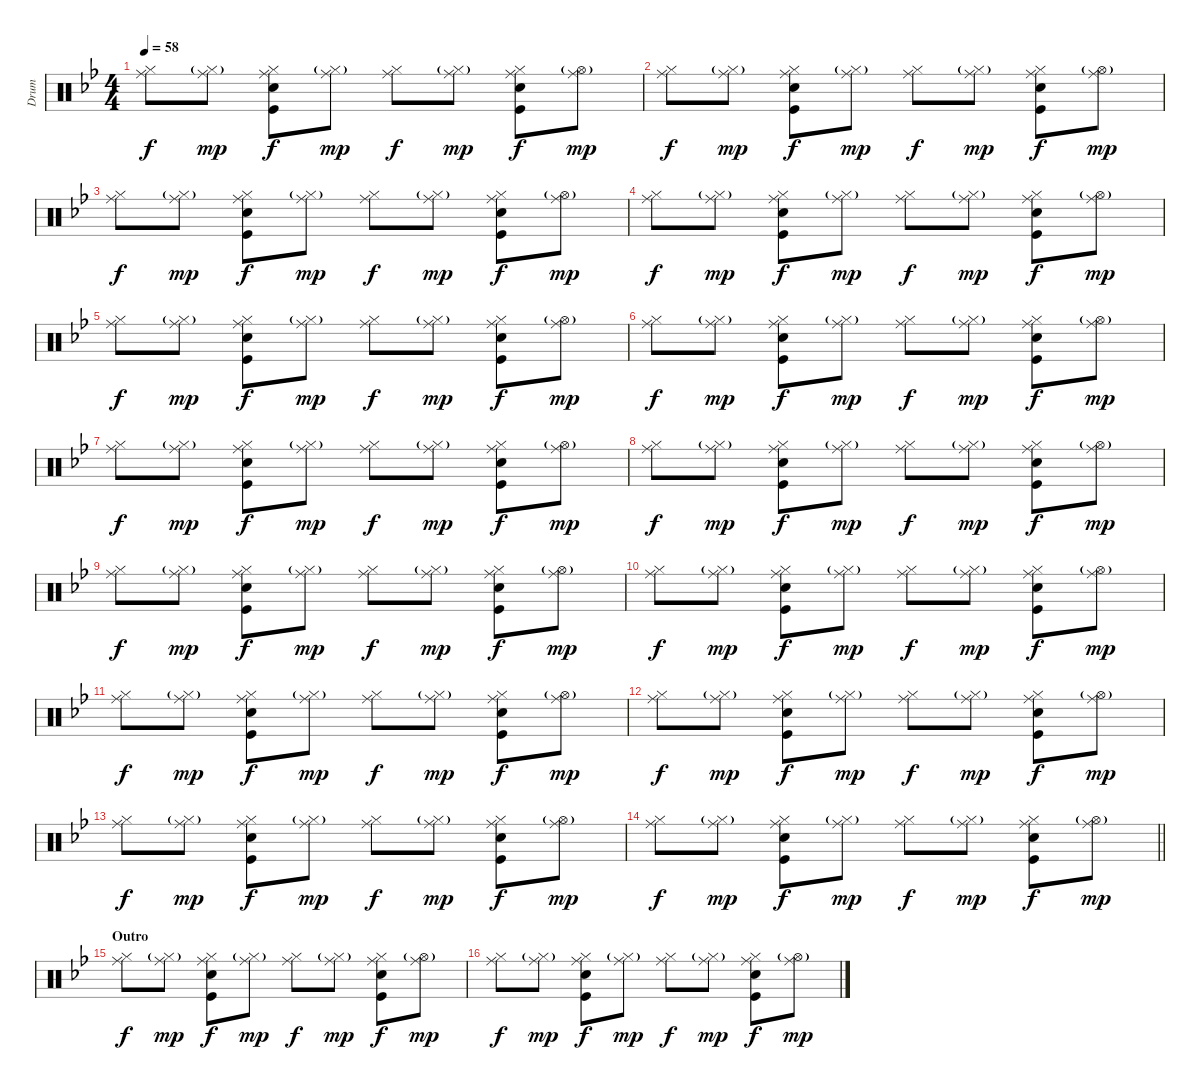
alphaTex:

\track ("Drum" "Drum") {instrument percussion}
\staff {score}
\articulation defaults
\ts (4 4)
\tempo 58
\clef neutral
\ks bb
("Ride (middle)" "Hi-Hat (closed)").8{dy f} ("Ride (middle)" "Hi-Hat (closed)"{g}).8{dy mp} ("Ride (middle)" "Hi-Hat (closed)" "Kick (hit)" "Snare (hit) 2").8{dy f} ("Ride (middle)" "Hi-Hat (closed)"{g}).8{dy mp} ("Ride (middle)" "Hi-Hat (closed)").8{dy f} ("Ride (middle)" "Hi-Hat (closed)"{g}).8{dy mp} ("Ride (middle)" "Hi-Hat (closed)" "Kick (hit)" "Snare (hit) 2").8{dy f} ("Ride (middle)" "Hi-Hat (open)"{g}).8{dy mp} |
("Ride (middle)" "Hi-Hat (closed)").8{dy f} ("Ride (middle)" "Hi-Hat (closed)"{g}).8{dy mp} ("Ride (middle)" "Hi-Hat (closed)" "Kick (hit)" "Snare (hit) 2").8{dy f} ("Ride (middle)" "Hi-Hat (closed)"{g}).8{dy mp} ("Ride (middle)" "Hi-Hat (closed)").8{dy f} ("Ride (middle)" "Hi-Hat (closed)"{g}).8{dy mp} ("Ride (middle)" "Hi-Hat (closed)" "Kick (hit)" "Snare (hit) 2").8{dy f} ("Ride (middle)" "Hi-Hat (open)"{g}).8{dy mp} |
("Ride (middle)" "Hi-Hat (closed)").8{dy f} ("Ride (middle)" "Hi-Hat (closed)"{g}).8{dy mp} ("Ride (middle)" "Hi-Hat (closed)" "Kick (hit)" "Snare (hit) 2").8{dy f} ("Ride (middle)" "Hi-Hat (closed)"{g}).8{dy mp} ("Ride (middle)" "Hi-Hat (closed)").8{dy f} ("Ride (middle)" "Hi-Hat (closed)"{g}).8{dy mp} ("Ride (middle)" "Hi-Hat (closed)" "Kick (hit)" "Snare (hit) 2").8{dy f} ("Ride (middle)" "Hi-Hat (open)"{g}).8{dy mp} |
("Ride (middle)" "Hi-Hat (closed)").8{dy f} ("Ride (middle)" "Hi-Hat (closed)"{g}).8{dy mp} ("Ride (middle)" "Hi-Hat (closed)" "Kick (hit)" "Snare (hit) 2").8{dy f} ("Ride (middle)" "Hi-Hat (closed)"{g}).8{dy mp} ("Ride (middle)" "Hi-Hat (closed)").8{dy f} ("Ride (middle)" "Hi-Hat (closed)"{g}).8{dy mp} ("Ride (middle)" "Hi-Hat (closed)" "Kick (hit)" "Snare (hit) 2").8{dy f} ("Ride (middle)" "Hi-Hat (open)"{g}).8{dy mp} |
("Ride (middle)" "Hi-Hat (closed)").8{dy f} ("Ride (middle)" "Hi-Hat (closed)"{g}).8{dy mp} ("Ride (middle)" "Hi-Hat (closed)" "Kick (hit)" "Snare (hit) 2").8{dy f} ("Ride (middle)" "Hi-Hat (closed)"{g}).8{dy mp} ("Ride (middle)" "Hi-Hat (closed)").8{dy f} ("Ride (middle)" "Hi-Hat (closed)"{g}).8{dy mp} ("Ride (middle)" "Hi-Hat (closed)" "Kick (hit)" "Snare (hit) 2").8{dy f} ("Ride (middle)" "Hi-Hat (open)"{g}).8{dy mp} |
("Ride (middle)" "Hi-Hat (closed)").8{dy f} ("Ride (middle)" "Hi-Hat (closed)"{g}).8{dy mp} ("Ride (middle)" "Hi-Hat (closed)" "Kick (hit)" "Snare (hit) 2").8{dy f} ("Ride (middle)" "Hi-Hat (closed)"{g}).8{dy mp} ("Ride (middle)" "Hi-Hat (closed)").8{dy f} ("Ride (middle)" "Hi-Hat (closed)"{g}).8{dy mp} ("Ride (middle)" "Hi-Hat (closed)" "Kick (hit)" "Snare (hit) 2").8{dy f} ("Ride (middle)" "Hi-Hat (open)"{g}).8{dy mp} |
("Ride (middle)" "Hi-Hat (closed)").8{dy f} ("Ride (middle)" "Hi-Hat (closed)"{g}).8{dy mp} ("Ride (middle)" "Hi-Hat (closed)" "Kick (hit)" "Snare (hit) 2").8{dy f} ("Ride (middle)" "Hi-Hat (closed)"{g}).8{dy mp} ("Ride (middle)" "Hi-Hat (closed)").8{dy f} ("Ride (middle)" "Hi-Hat (closed)"{g}).8{dy mp} ("Ride (middle)" "Hi-Hat (closed)" "Kick (hit)" "Snare (hit) 2").8{dy f} ("Ride (middle)" "Hi-Hat (open)"{g}).8{dy mp} |
("Ride (middle)" "Hi-Hat (closed)").8{dy f} ("Ride (middle)" "Hi-Hat (closed)"{g}).8{dy mp} ("Ride (middle)" "Hi-Hat (closed)" "Kick (hit)" "Snare (hit) 2").8{dy f} ("Ride (middle)" "Hi-Hat (closed)"{g}).8{dy mp} ("Ride (middle)" "Hi-Hat (closed)").8{dy f} ("Ride (middle)" "Hi-Hat (closed)"{g}).8{dy mp} ("Ride (middle)" "Hi-Hat (closed)" "Kick (hit)" "Snare (hit) 2").8{dy f} ("Ride (middle)" "Hi-Hat (open)"{g}).8{dy mp} |
("Ride (middle)" "Hi-Hat (closed)").8{dy f} ("Ride (middle)" "Hi-Hat (closed)"{g}).8{dy mp} ("Ride (middle)" "Hi-Hat (closed)" "Kick (hit)" "Snare (hit) 2").8{dy f} ("Ride (middle)" "Hi-Hat (closed)"{g}).8{dy mp} ("Ride (middle)" "Hi-Hat (closed)").8{dy f} ("Ride (middle)" "Hi-Hat (closed)"{g}).8{dy mp} ("Ride (middle)" "Hi-Hat (closed)" "Kick (hit)" "Snare (hit) 2").8{dy f} ("Ride (middle)" "Hi-Hat (open)"{g}).8{dy mp} |
("Ride (middle)" "Hi-Hat (closed)").8{dy f} ("Ride (middle)" "Hi-Hat (closed)"{g}).8{dy mp} ("Ride (middle)" "Hi-Hat (closed)" "Kick (hit)" "Snare (hit) 2").8{dy f} ("Ride (middle)" "Hi-Hat (closed)"{g}).8{dy mp} ("Ride (middle)" "Hi-Hat (closed)").8{dy f} ("Ride (middle)" "Hi-Hat (closed)"{g}).8{dy mp} ("Ride (middle)" "Hi-Hat (closed)" "Kick (hit)" "Snare (hit) 2").8{dy f} ("Ride (middle)" "Hi-Hat (open)"{g}).8{dy mp} |
("Ride (middle)" "Hi-Hat (closed)").8{dy f} ("Ride (middle)" "Hi-Hat (closed)"{g}).8{dy mp} ("Ride (middle)" "Hi-Hat (closed)" "Kick (hit)" "Snare (hit) 2").8{dy f} ("Ride (middle)" "Hi-Hat (closed)"{g}).8{dy mp} ("Ride (middle)" "Hi-Hat (closed)").8{dy f} ("Ride (middle)" "Hi-Hat (closed)"{g}).8{dy mp} ("Ride (middle)" "Hi-Hat (closed)" "Kick (hit)" "Snare (hit) 2").8{dy f} ("Ride (middle)" "Hi-Hat (open)"{g}).8{dy mp} |
("Ride (middle)" "Hi-Hat (closed)").8{dy f} ("Ride (middle)" "Hi-Hat (closed)"{g}).8{dy mp} ("Ride (middle)" "Hi-Hat (closed)" "Kick (hit)" "Snare (hit) 2").8{dy f} ("Ride (middle)" "Hi-Hat (closed)"{g}).8{dy mp} ("Ride (middle)" "Hi-Hat (closed)").8{dy f} ("Ride (middle)" "Hi-Hat (closed)"{g}).8{dy mp} ("Ride (middle)" "Hi-Hat (closed)" "Kick (hit)" "Snare (hit) 2").8{dy f} ("Ride (middle)" "Hi-Hat (open)"{g}).8{dy mp} |
("Ride (middle)" "Hi-Hat (closed)").8{dy f} ("Ride (middle)" "Hi-Hat (closed)"{g}).8{dy mp} ("Ride (middle)" "Hi-Hat (closed)" "Kick (hit)" "Snare (hit) 2").8{dy f} ("Ride (middle)" "Hi-Hat (closed)"{g}).8{dy mp} ("Ride (middle)" "Hi-Hat (closed)").8{dy f} ("Ride (middle)" "Hi-Hat (closed)"{g}).8{dy mp} ("Ride (middle)" "Hi-Hat (closed)" "Kick (hit)" "Snare (hit) 2").8{dy f} ("Ride (middle)" "Hi-Hat (open)"{g}).8{dy mp} |
\barLineRight lightlight
("Ride (middle)" "Hi-Hat (closed)").8{dy f} ("Ride (middle)" "Hi-Hat (closed)"{g}).8{dy mp} ("Ride (middle)" "Hi-Hat (closed)" "Kick (hit)" "Snare (hit) 2").8{dy f} ("Ride (middle)" "Hi-Hat (closed)"{g}).8{dy mp} ("Ride (middle)" "Hi-Hat (closed)").8{dy f} ("Ride (middle)" "Hi-Hat (closed)"{g}).8{dy mp} ("Ride (middle)" "Hi-Hat (closed)" "Kick (hit)" "Snare (hit) 2").8{dy f} ("Ride (middle)" "Hi-Hat (open)"{g}).8{dy mp} |
\section ("" "Outro")
("Ride (middle)" "Hi-Hat (closed)").8{dy f} ("Ride (middle)" "Hi-Hat (closed)"{g}).8{dy mp} ("Ride (middle)" "Hi-Hat (closed)" "Kick (hit)" "Snare (hit) 2").8{dy f} ("Ride (middle)" "Hi-Hat (closed)"{g}).8{dy mp} ("Ride (middle)" "Hi-Hat (closed)").8{dy f} ("Ride (middle)" "Hi-Hat (closed)"{g}).8{dy mp} ("Ride (middle)" "Hi-Hat (closed)" "Kick (hit)" "Snare (hit) 2").8{dy f} ("Ride (middle)" "Hi-Hat (open)"{g}).8{dy mp} |
("Ride (middle)" "Hi-Hat (closed)").8{dy f} ("Ride (middle)" "Hi-Hat (closed)"{g}).8{dy mp} ("Ride (middle)" "Hi-Hat (closed)" "Kick (hit)" "Snare (hit) 2").8{dy f} ("Ride (middle)" "Hi-Hat (closed)"{g}).8{dy mp} ("Ride (middle)" "Hi-Hat (closed)").8{dy f} ("Ride (middle)" "Hi-Hat (closed)"{g}).8{dy mp} ("Ride (middle)" "Hi-Hat (closed)" "Kick (hit)" "Snare (hit) 2").8{dy f} ("Ride (middle)" "Hi-Hat (open)"{g}).8{dy mp}
